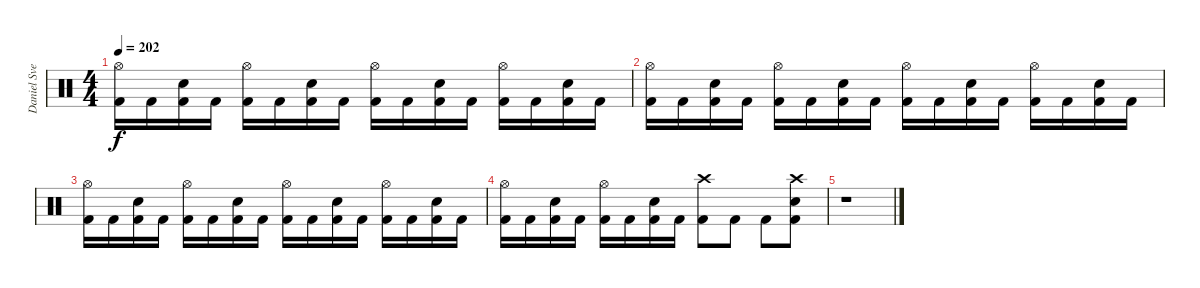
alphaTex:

\track ("Daniel Svensson" "Daniel Sve") {instrument percussion}
\staff {score}
\articulation defaults
\ts (4 4)
\tempo 202
\clef neutral
\ks c
("Hi-Hat (open)" "Kick (hit) 2").16{dy f} "Kick (hit) 2".16 ("Electric Snare (hit)" "Kick (hit) 2").16 "Kick (hit) 2".16 ("Hi-Hat (open)" "Kick (hit) 2").16 "Kick (hit) 2".16 ("Electric Snare (hit)" "Kick (hit) 2").16 "Kick (hit) 2".16 ("Hi-Hat (open)" "Kick (hit) 2").16 "Kick (hit) 2".16 ("Electric Snare (hit)" "Kick (hit) 2").16 "Kick (hit) 2".16 ("Hi-Hat (open)" "Kick (hit) 2").16 "Kick (hit) 2".16 ("Electric Snare (hit)" "Kick (hit) 2").16 "Kick (hit) 2".16 |
("Hi-Hat (open)" "Kick (hit) 2").16 "Kick (hit) 2".16 ("Electric Snare (hit)" "Kick (hit) 2").16 "Kick (hit) 2".16 ("Hi-Hat (open)" "Kick (hit) 2").16 "Kick (hit) 2".16 ("Electric Snare (hit)" "Kick (hit) 2").16 "Kick (hit) 2".16 ("Hi-Hat (open)" "Kick (hit) 2").16 "Kick (hit) 2".16 ("Electric Snare (hit)" "Kick (hit) 2").16 "Kick (hit) 2".16 ("Hi-Hat (open)" "Kick (hit) 2").16 "Kick (hit) 2".16 ("Electric Snare (hit)" "Kick (hit) 2").16 "Kick (hit) 2".16 |
("Hi-Hat (open)" "Kick (hit) 2").16 "Kick (hit) 2".16 ("Electric Snare (hit)" "Kick (hit) 2").16 "Kick (hit) 2".16 ("Hi-Hat (open)" "Kick (hit) 2").16 "Kick (hit) 2".16 ("Electric Snare (hit)" "Kick (hit) 2").16 "Kick (hit) 2".16 ("Hi-Hat (open)" "Kick (hit) 2").16 "Kick (hit) 2".16 ("Electric Snare (hit)" "Kick (hit) 2").16 "Kick (hit) 2".16 ("Hi-Hat (open)" "Kick (hit) 2").16 "Kick (hit) 2".16 ("Electric Snare (hit)" "Kick (hit) 2").16 "Kick (hit) 2".16 |
("Hi-Hat (open)" "Kick (hit) 2").16 "Kick (hit) 2".16 ("Electric Snare (hit)" "Kick (hit) 2").16 "Kick (hit) 2".16 ("Hi-Hat (open)" "Kick (hit) 2").16 "Kick (hit) 2".16 ("Electric Snare (hit)" "Kick (hit) 2").16 "Kick (hit) 2".16 ("Crash high (hit)" "Kick (hit) 2").8 "Kick (hit) 2".8 "Kick (hit) 2".8 ("Crash high (hit)" "Electric Snare (hit)" "Kick (hit) 2").8 |
r.1
